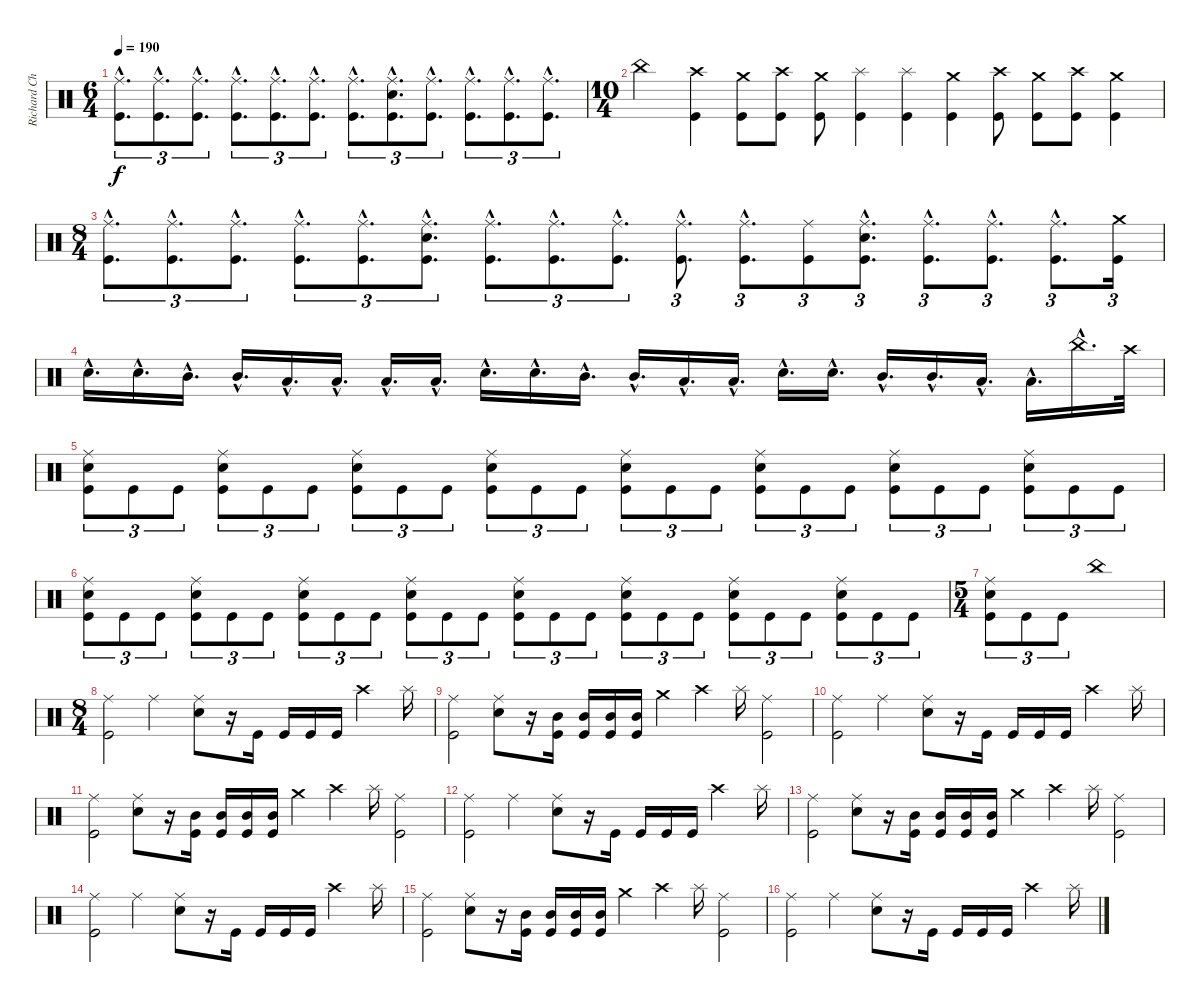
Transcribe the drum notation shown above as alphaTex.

\track ("Richard Christy" "Richard Ch") {instrument percussion}
\staff {score}
\articulation defaults
\ts (6 4)
\tempo 190
\clef neutral
\ks c
("Ride (middle)"{hac} "Kick (hit)"{hac}).8{d tu (3 2) dy f} ("Ride (middle)"{hac} "Kick (hit)"{hac}).8{d tu (3 2)} ("Ride (middle)"{hac} "Kick (hit)"{hac}).8{d tu (3 2)} ("Ride (middle)"{hac} "Kick (hit)"{hac}).8{d tu (3 2)} ("Ride (middle)"{hac} "Kick (hit)"{hac}).8{d tu (3 2)} ("Ride (middle)"{hac} "Kick (hit)"{hac}).8{d tu (3 2)} ("Ride (middle)"{hac} "Kick (hit)"{hac}).8{d tu (3 2)} ("Ride (middle)"{hac} "Electric Snare (hit)"{hac} "Kick (hit)"{hac}).8{d tu (3 2)} ("Ride (middle)"{hac} "Kick (hit)"{hac}).8{d tu (3 2)} ("Ride (middle)"{hac} "Kick (hit)"{hac}).8{d tu (3 2)} ("Ride (middle)"{hac} "Kick (hit)"{hac}).8{d tu (3 2)} ("Ride (middle)"{hac} "Kick (hit)"{hac}).8{d tu (3 2)} |
\ts (10 4)
"China (hit)".2 ("Crash high (hit)" "Kick (hit)").4 ("Crash medium (hit)" "Kick (hit)").8 ("Crash high (hit)" "Kick (hit)").8 ("Crash medium (hit)" "Kick (hit)").8 ("Splash (hit)" "Kick (hit)").4 ("Splash (hit)" "Kick (hit)").4 ("Crash medium (hit)" "Kick (hit)").4 ("Crash high (hit)" "Kick (hit)").8 ("Crash medium (hit)" "Kick (hit)").8 ("Crash high (hit)" "Kick (hit)").8 ("Crash medium (hit)" "Kick (hit)").4 |
\ts (8 4)
("Ride (middle)"{hac} "Kick (hit)"{hac}).8{d tu (3 2)} ("Ride (middle)"{hac} "Kick (hit)"{hac}).8{d tu (3 2)} ("Ride (middle)"{hac} "Kick (hit)"{hac}).8{d tu (3 2)} ("Ride (middle)"{hac} "Kick (hit)"{hac}).8{d tu (3 2)} ("Ride (middle)"{hac} "Kick (hit)"{hac}).8{d tu (3 2)} ("Ride (middle)"{hac} "Electric Snare (hit)"{hac} "Kick (hit)"{hac}).8{d tu (3 2)} ("Ride (middle)"{hac} "Kick (hit)"{hac}).8{d tu (3 2)} ("Ride (middle)"{hac} "Kick (hit)"{hac}).8{d tu (3 2)} ("Ride (middle)"{hac} "Kick (hit)"{hac}).8{d tu (3 2)} ("Ride (middle)"{hac} "Kick (hit)"{hac}).8{d tu (3 2)} ("Ride (middle)"{hac} "Kick (hit)"{hac}).8{d tu (3 2)} ("Ride (middle)" "Kick (hit)").8{tu (3 2)} ("Ride (middle)"{hac} "Electric Snare (hit)"{hac} "Kick (hit)"{hac}).8{d tu (3 2)} ("Ride (middle)"{hac} "Kick (hit)"{hac}).8{d tu (3 2)} ("Ride (middle)"{hac} "Kick (hit)"{hac}).8{d tu (3 2)} ("Ride (middle)"{hac} "Kick (hit)"{hac}).8{d tu (3 2)} ("Crash medium (hit)" "Kick (hit)").16{tu (3 2)} |
"Electric Snare (hit)"{hac}.16{d} "Electric Snare (hit)"{hac}.16{d} "Mid Tom (hit)"{hac}.16{d} "Mid Tom (hit)"{hac}.16{d} "Low Tom (hit)"{hac}.16{d} "Low Tom (hit)"{hac}.16{d} "Low Floor Tom (hit)"{hac}.16{d} "Low Floor Tom (hit)"{hac}.16{d} "Electric Snare (hit)"{hac}.16{d} "Electric Snare (hit)"{hac}.16{d} "Mid Tom (hit)"{hac}.16{d} "Mid Tom (hit)"{hac}.16{d} "Low Tom (hit)"{hac}.16{d} "Low Tom (hit)"{hac}.16{d} "Electric Snare (hit)"{hac}.16{d} "Electric Snare (hit)"{hac}.16{d} "Mid Tom (hit)"{hac}.16{d} "Mid Tom (hit)"{hac}.16{d} "Low Tom (hit)"{hac}.16{d} "Low Tom (hit)"{hac}.16{d} "China (hit)"{hac}.16{d} "Crash high (hit)".32 |
("Ride (middle)" "Electric Snare (hit)" "Kick (hit)").8{tu (3 2)} "Kick (hit)".8{tu (3 2)} "Kick (hit)".8{tu (3 2)} ("Ride (middle)" "Electric Snare (hit)" "Kick (hit)").8{tu (3 2)} "Kick (hit)".8{tu (3 2)} "Kick (hit)".8{tu (3 2)} ("Ride (middle)" "Electric Snare (hit)" "Kick (hit)").8{tu (3 2)} "Kick (hit)".8{tu (3 2)} "Kick (hit)".8{tu (3 2)} ("Ride (middle)" "Electric Snare (hit)" "Kick (hit)").8{tu (3 2)} "Kick (hit)".8{tu (3 2)} "Kick (hit)".8{tu (3 2)} ("Ride (middle)" "Electric Snare (hit)" "Kick (hit)").8{tu (3 2)} "Kick (hit)".8{tu (3 2)} "Kick (hit)".8{tu (3 2)} ("Ride (middle)" "Electric Snare (hit)" "Kick (hit)").8{tu (3 2)} "Kick (hit)".8{tu (3 2)} "Kick (hit)".8{tu (3 2)} ("Ride (middle)" "Electric Snare (hit)" "Kick (hit)").8{tu (3 2)} "Kick (hit)".8{tu (3 2)} "Kick (hit)".8{tu (3 2)} ("Ride (middle)" "Electric Snare (hit)" "Kick (hit)").8{tu (3 2)} "Kick (hit)".8{tu (3 2)} "Kick (hit)".8{tu (3 2)} |
("Ride (middle)" "Electric Snare (hit)" "Kick (hit)").8{tu (3 2)} "Kick (hit)".8{tu (3 2)} "Kick (hit)".8{tu (3 2)} ("Ride (middle)" "Electric Snare (hit)" "Kick (hit)").8{tu (3 2)} "Kick (hit)".8{tu (3 2)} "Kick (hit)".8{tu (3 2)} ("Ride (middle)" "Electric Snare (hit)" "Kick (hit)").8{tu (3 2)} "Kick (hit)".8{tu (3 2)} "Kick (hit)".8{tu (3 2)} ("Ride (middle)" "Electric Snare (hit)" "Kick (hit)").8{tu (3 2)} "Kick (hit)".8{tu (3 2)} "Kick (hit)".8{tu (3 2)} ("Ride (middle)" "Electric Snare (hit)" "Kick (hit)").8{tu (3 2)} "Kick (hit)".8{tu (3 2)} "Kick (hit)".8{tu (3 2)} ("Ride (middle)" "Electric Snare (hit)" "Kick (hit)").8{tu (3 2)} "Kick (hit)".8{tu (3 2)} "Kick (hit)".8{tu (3 2)} ("Ride (middle)" "Electric Snare (hit)" "Kick (hit)").8{tu (3 2)} "Kick (hit)".8{tu (3 2)} "Kick (hit)".8{tu (3 2)} ("Ride (middle)" "Electric Snare (hit)" "Kick (hit)").8{tu (3 2)} "Kick (hit)".8{tu (3 2)} "Kick (hit)".8{tu (3 2)} |
\ts (5 4)
("Ride (middle)" "Electric Snare (hit)" "Kick (hit)").8{tu (3 2)} "Kick (hit)".8{tu (3 2)} "Kick (hit)".8{tu (3 2)} "China (hit)".1 |
\ts (8 4)
("Ride (middle)" "Kick (hit)").2 "Ride (middle)".2 ("Ride (middle)" "Electric Snare (hit)").8 r.16 "Kick (hit)".16 "Kick (hit)".16 "Kick (hit)".16 "Kick (hit)".16 "Crash high (hit)".2 "Splash (hit)".16 |
("Ride (middle)" "Kick (hit)").2 ("Ride (middle)" "Electric Snare (hit)").8 r.16 ("Mid Tom (hit)" "Kick (hit)").16 ("Mid Tom (hit)" "Kick (hit)").16 ("Mid Tom (hit)" "Kick (hit)").16 ("Mid Tom (hit)" "Kick (hit)").16 "Crash medium (hit)".4 "Crash high (hit)".4 "Splash (hit)".16 ("Ride (middle)" "Kick (hit)").2 |
("Ride (middle)" "Kick (hit)").2 "Ride (middle)".2 ("Ride (middle)" "Electric Snare (hit)").8 r.16 "Kick (hit)".16 "Kick (hit)".16 "Kick (hit)".16 "Kick (hit)".16 "Crash high (hit)".2 "Splash (hit)".16 |
("Ride (middle)" "Kick (hit)").2 ("Ride (middle)" "Electric Snare (hit)").8 r.16 ("Mid Tom (hit)" "Kick (hit)").16 ("Mid Tom (hit)" "Kick (hit)").16 ("Mid Tom (hit)" "Kick (hit)").16 ("Mid Tom (hit)" "Kick (hit)").16 "Crash medium (hit)".4 "Crash high (hit)".4 "Splash (hit)".16 ("Ride (middle)" "Kick (hit)").2 |
("Ride (middle)" "Kick (hit)").2 "Ride (middle)".2 ("Ride (middle)" "Electric Snare (hit)").8 r.16 "Kick (hit)".16 "Kick (hit)".16 "Kick (hit)".16 "Kick (hit)".16 "Crash high (hit)".2 "Splash (hit)".16 |
("Ride (middle)" "Kick (hit)").2 ("Ride (middle)" "Electric Snare (hit)").8 r.16 ("Mid Tom (hit)" "Kick (hit)").16 ("Mid Tom (hit)" "Kick (hit)").16 ("Mid Tom (hit)" "Kick (hit)").16 ("Mid Tom (hit)" "Kick (hit)").16 "Crash medium (hit)".4 "Crash high (hit)".4 "Splash (hit)".16 ("Ride (middle)" "Kick (hit)").2 |
("Ride (middle)" "Kick (hit)").2 "Ride (middle)".2 ("Ride (middle)" "Electric Snare (hit)").8 r.16 "Kick (hit)".16 "Kick (hit)".16 "Kick (hit)".16 "Kick (hit)".16 "Crash high (hit)".2 "Splash (hit)".16 |
("Ride (middle)" "Kick (hit)").2 ("Ride (middle)" "Electric Snare (hit)").8 r.16 ("Mid Tom (hit)" "Kick (hit)").16 ("Mid Tom (hit)" "Kick (hit)").16 ("Mid Tom (hit)" "Kick (hit)").16 ("Mid Tom (hit)" "Kick (hit)").16 "Crash medium (hit)".4 "Crash high (hit)".4 "Splash (hit)".16 ("Ride (middle)" "Kick (hit)").2 |
("Ride (middle)" "Kick (hit)").2 "Ride (middle)".2 ("Ride (middle)" "Electric Snare (hit)").8 r.16 "Kick (hit)".16 "Kick (hit)".16 "Kick (hit)".16 "Kick (hit)".16 "Crash high (hit)".2 "Splash (hit)".16
